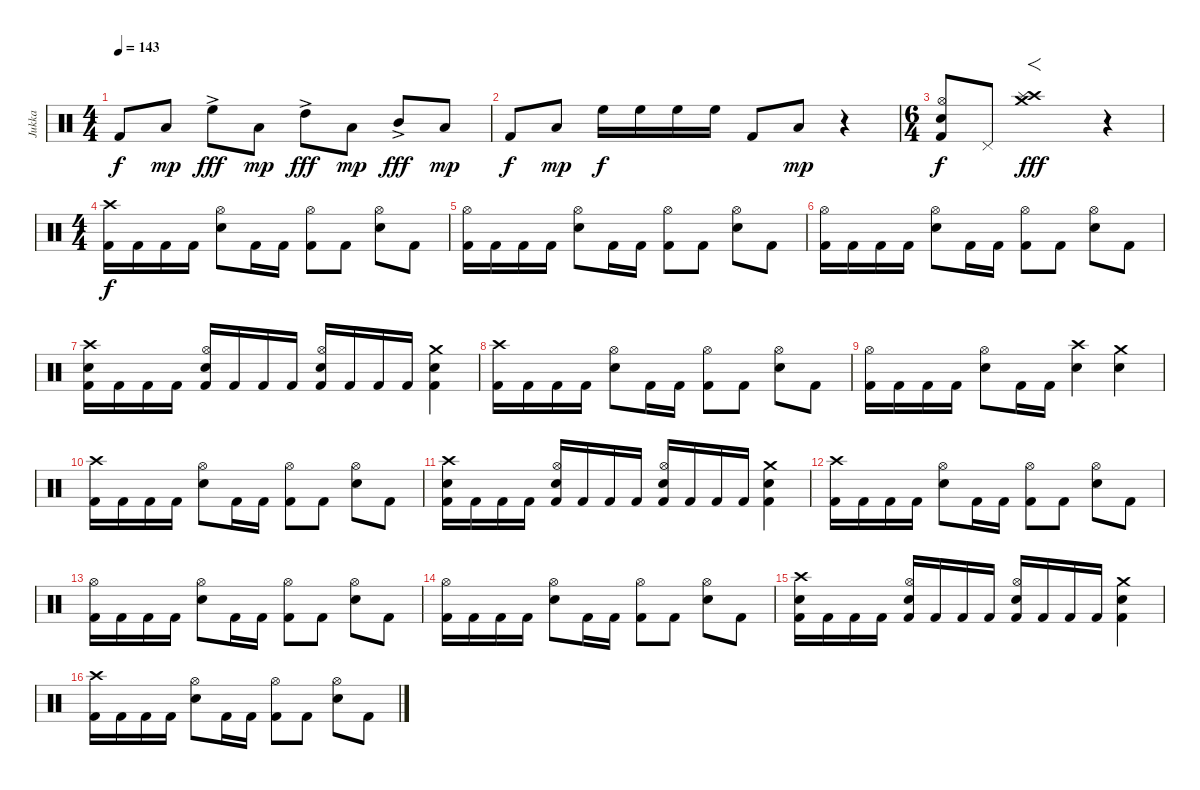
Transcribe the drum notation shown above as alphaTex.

\track ("Jukka" "Jukka") {instrument percussion}
\staff {score}
\articulation defaults
\ts (4 4)
\tempo 143
\clef neutral
\ks c "Kick (hit) 2".8{dy f} "Low Tom (hit)".8{dy mp} "High Floor Tom (hit)"{ac}.8{dy fff} "Low Tom (hit)".8{dy mp} "High Tom (hit)"{ac}.8{dy fff} "Low Tom (hit)".8{dy mp} "Mid Tom (hit)"{ac}.8{dy fff} "Low Tom (hit)".8{dy mp}
|
"Kick (hit) 2".8{dy f} "Low Tom (hit)".8{dy mp} "High Floor Tom (hit)".16{dy f} "High Floor Tom (hit)".16 "High Floor Tom (hit)".16 "High Floor Tom (hit)".16 "Kick (hit) 2".8 "Low Tom (hit)".8{dy mp} r.4 |
\ts (6 4)
("Hi-Hat (open)" "Electric Snare (hit)" "Kick (hit) 2").8{dy f} "Pedal Hi-Hat (hit)".8 ("Crash high (hit)" "Crash medium (hit)" "Splash (hit)").1{f dy fff} r.4 |
\ts (4 4)
("Crash high (hit)" "Kick (hit) 2").16{dy f} "Kick (hit) 2".16 "Kick (hit) 2".16 "Kick (hit) 2".16 ("Hi-Hat (open)" "Electric Snare (hit)").8 "Kick (hit) 2".16 "Kick (hit) 2".16 ("Hi-Hat (open)" "Kick (hit) 2").8 "Kick (hit) 2".8 ("Hi-Hat (open)" "Electric Snare (hit)").8 "Kick (hit) 2".8 |
("Hi-Hat (open)" "Kick (hit) 2").16 "Kick (hit) 2".16 "Kick (hit) 2".16 "Kick (hit) 2".16 ("Hi-Hat (open)" "Electric Snare (hit)").8 "Kick (hit) 2".16 "Kick (hit) 2".16 ("Hi-Hat (open)" "Kick (hit) 2").8 "Kick (hit) 2".8 ("Hi-Hat (open)" "Electric Snare (hit)").8 "Kick (hit) 2".8 |
("Hi-Hat (open)" "Kick (hit) 2").16 "Kick (hit) 2".16 "Kick (hit) 2".16 "Kick (hit) 2".16 ("Hi-Hat (open)" "Electric Snare (hit)").8 "Kick (hit) 2".16 "Kick (hit) 2".16 ("Hi-Hat (open)" "Kick (hit) 2").8 "Kick (hit) 2".8 ("Hi-Hat (open)" "Electric Snare (hit)").8 "Kick (hit) 2".8 |
("Crash high (hit)" "Electric Snare (hit)" "Kick (hit) 2").16 "Kick (hit) 2".16 "Kick (hit) 2".16 "Kick (hit) 2".16 ("Hi-Hat (open)" "Electric Snare (hit)" "Kick (hit) 2").16 "Kick (hit) 2".16 "Kick (hit) 2".16 "Kick (hit) 2".16 ("Hi-Hat (open)" "Electric Snare (hit)" "Kick (hit) 2").16 "Kick (hit) 2".16 "Kick (hit) 2".16 "Kick (hit) 2".16 ("Crash medium (hit)" "Electric Snare (hit)" "Kick (hit) 2").4 |
("Crash high (hit)" "Kick (hit) 2").16 "Kick (hit) 2".16 "Kick (hit) 2".16 "Kick (hit) 2".16 ("Hi-Hat (open)" "Electric Snare (hit)").8 "Kick (hit) 2".16 "Kick (hit) 2".16 ("Hi-Hat (open)" "Kick (hit) 2").8 "Kick (hit) 2".8 ("Hi-Hat (open)" "Electric Snare (hit)").8 "Kick (hit) 2".8 |
("Hi-Hat (open)" "Kick (hit) 2").16 "Kick (hit) 2".16 "Kick (hit) 2".16 "Kick (hit) 2".16 ("Hi-Hat (open)" "Electric Snare (hit)").8 "Kick (hit) 2".16 "Kick (hit) 2".16 ("Crash high (hit)" "Electric Snare (hit)").4 ("Crash medium (hit)" "Electric Snare (hit)").4 |
("Crash high (hit)" "Kick (hit) 2").16 "Kick (hit) 2".16 "Kick (hit) 2".16 "Kick (hit) 2".16 ("Hi-Hat (open)" "Electric Snare (hit)").8 "Kick (hit) 2".16 "Kick (hit) 2".16 ("Hi-Hat (open)" "Kick (hit) 2").8 "Kick (hit) 2".8 ("Hi-Hat (open)" "Electric Snare (hit)").8 "Kick (hit) 2".8 |
("Crash high (hit)" "Electric Snare (hit)" "Kick (hit) 2").16 "Kick (hit) 2".16 "Kick (hit) 2".16 "Kick (hit) 2".16 ("Hi-Hat (open)" "Electric Snare (hit)" "Kick (hit) 2").16 "Kick (hit) 2".16 "Kick (hit) 2".16 "Kick (hit) 2".16 ("Hi-Hat (open)" "Electric Snare (hit)" "Kick (hit) 2").16 "Kick (hit) 2".16 "Kick (hit) 2".16 "Kick (hit) 2".16 ("Crash medium (hit)" "Electric Snare (hit)" "Kick (hit) 2").4 |
("Crash high (hit)" "Kick (hit) 2").16 "Kick (hit) 2".16 "Kick (hit) 2".16 "Kick (hit) 2".16 ("Hi-Hat (open)" "Electric Snare (hit)").8 "Kick (hit) 2".16 "Kick (hit) 2".16 ("Hi-Hat (open)" "Kick (hit) 2").8 "Kick (hit) 2".8 ("Hi-Hat (open)" "Electric Snare (hit)").8 "Kick (hit) 2".8 |
("Hi-Hat (open)" "Kick (hit) 2").16 "Kick (hit) 2".16 "Kick (hit) 2".16 "Kick (hit) 2".16 ("Hi-Hat (open)" "Electric Snare (hit)").8 "Kick (hit) 2".16 "Kick (hit) 2".16 ("Hi-Hat (open)" "Kick (hit) 2").8 "Kick (hit) 2".8 ("Hi-Hat (open)" "Electric Snare (hit)").8 "Kick (hit) 2".8 |
("Hi-Hat (open)" "Kick (hit) 2").16 "Kick (hit) 2".16 "Kick (hit) 2".16 "Kick (hit) 2".16 ("Hi-Hat (open)" "Electric Snare (hit)").8 "Kick (hit) 2".16 "Kick (hit) 2".16 ("Hi-Hat (open)" "Kick (hit) 2").8 "Kick (hit) 2".8 ("Hi-Hat (open)" "Electric Snare (hit)").8 "Kick (hit) 2".8 |
("Crash high (hit)" "Electric Snare (hit)" "Kick (hit) 2").16 "Kick (hit) 2".16 "Kick (hit) 2".16 "Kick (hit) 2".16 ("Hi-Hat (open)" "Electric Snare (hit)" "Kick (hit) 2").16 "Kick (hit) 2".16 "Kick (hit) 2".16 "Kick (hit) 2".16 ("Hi-Hat (open)" "Electric Snare (hit)" "Kick (hit) 2").16 "Kick (hit) 2".16 "Kick (hit) 2".16 "Kick (hit) 2".16 ("Crash medium (hit)" "Electric Snare (hit)" "Kick (hit) 2").4 |
("Crash high (hit)" "Kick (hit) 2").16 "Kick (hit) 2".16 "Kick (hit) 2".16 "Kick (hit) 2".16 ("Hi-Hat (open)" "Electric Snare (hit)").8 "Kick (hit) 2".16 "Kick (hit) 2".16 ("Hi-Hat (open)" "Kick (hit) 2").8 "Kick (hit) 2".8 ("Hi-Hat (open)" "Electric Snare (hit)").8 "Kick (hit) 2".8
